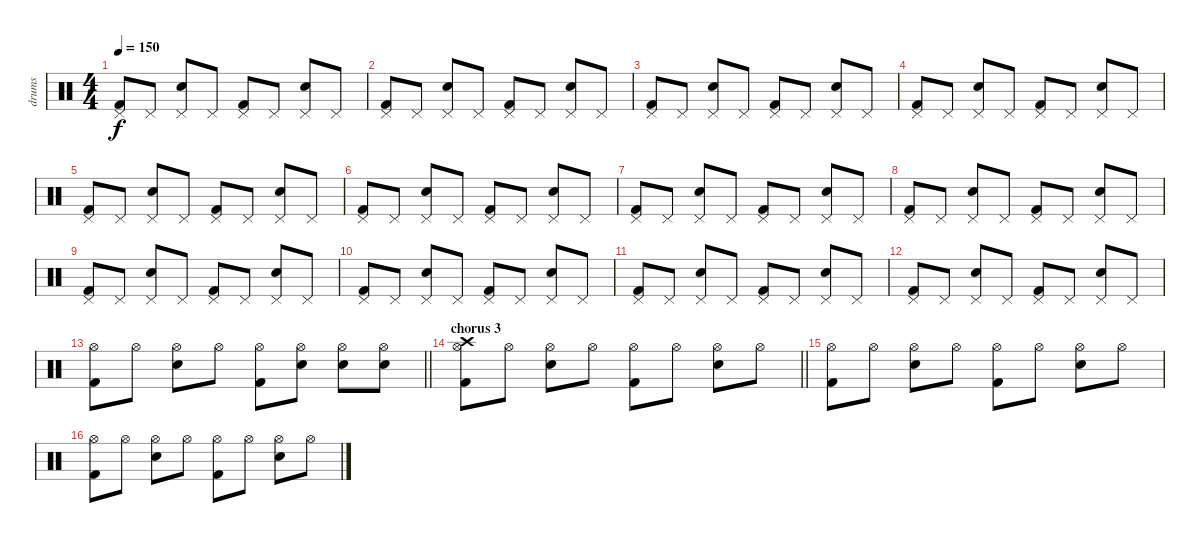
\track ("drums" "drums") {instrument percussion}
\staff {score}
\articulation defaults
\ts (4 4)
\tempo 150
\clef neutral
\ks c
("Kick (hit) 2" "Pedal Hi-Hat (hit)").8{dy f} "Pedal Hi-Hat (hit)".8 ("Electric Snare (hit)" "Pedal Hi-Hat (hit)").8 "Pedal Hi-Hat (hit)".8 ("Kick (hit) 2" "Pedal Hi-Hat (hit)").8 "Pedal Hi-Hat (hit)".8 ("Electric Snare (hit)" "Pedal Hi-Hat (hit)").8 "Pedal Hi-Hat (hit)".8 |
("Kick (hit) 2" "Pedal Hi-Hat (hit)").8 "Pedal Hi-Hat (hit)".8 ("Electric Snare (hit)" "Pedal Hi-Hat (hit)").8 "Pedal Hi-Hat (hit)".8 ("Kick (hit) 2" "Pedal Hi-Hat (hit)").8 "Pedal Hi-Hat (hit)".8 ("Electric Snare (hit)" "Pedal Hi-Hat (hit)").8 "Pedal Hi-Hat (hit)".8 |
("Kick (hit) 2" "Pedal Hi-Hat (hit)").8 "Pedal Hi-Hat (hit)".8 ("Electric Snare (hit)" "Pedal Hi-Hat (hit)").8 "Pedal Hi-Hat (hit)".8 ("Kick (hit) 2" "Pedal Hi-Hat (hit)").8 "Pedal Hi-Hat (hit)".8 ("Electric Snare (hit)" "Pedal Hi-Hat (hit)").8 "Pedal Hi-Hat (hit)".8 |
("Kick (hit) 2" "Pedal Hi-Hat (hit)").8 "Pedal Hi-Hat (hit)".8 ("Electric Snare (hit)" "Pedal Hi-Hat (hit)").8 "Pedal Hi-Hat (hit)".8 ("Kick (hit) 2" "Pedal Hi-Hat (hit)").8 "Pedal Hi-Hat (hit)".8 ("Electric Snare (hit)" "Pedal Hi-Hat (hit)").8 "Pedal Hi-Hat (hit)".8 |
("Kick (hit) 2" "Pedal Hi-Hat (hit)").8 "Pedal Hi-Hat (hit)".8 ("Electric Snare (hit)" "Pedal Hi-Hat (hit)").8 "Pedal Hi-Hat (hit)".8 ("Kick (hit) 2" "Pedal Hi-Hat (hit)").8 "Pedal Hi-Hat (hit)".8 ("Electric Snare (hit)" "Pedal Hi-Hat (hit)").8 "Pedal Hi-Hat (hit)".8 |
("Kick (hit) 2" "Pedal Hi-Hat (hit)").8 "Pedal Hi-Hat (hit)".8 ("Electric Snare (hit)" "Pedal Hi-Hat (hit)").8 "Pedal Hi-Hat (hit)".8 ("Kick (hit) 2" "Pedal Hi-Hat (hit)").8 "Pedal Hi-Hat (hit)".8 ("Electric Snare (hit)" "Pedal Hi-Hat (hit)").8 "Pedal Hi-Hat (hit)".8 |
("Kick (hit) 2" "Pedal Hi-Hat (hit)").8 "Pedal Hi-Hat (hit)".8 ("Electric Snare (hit)" "Pedal Hi-Hat (hit)").8 "Pedal Hi-Hat (hit)".8 ("Kick (hit) 2" "Pedal Hi-Hat (hit)").8 "Pedal Hi-Hat (hit)".8 ("Electric Snare (hit)" "Pedal Hi-Hat (hit)").8 "Pedal Hi-Hat (hit)".8 |
("Kick (hit) 2" "Pedal Hi-Hat (hit)").8 "Pedal Hi-Hat (hit)".8 ("Electric Snare (hit)" "Pedal Hi-Hat (hit)").8 "Pedal Hi-Hat (hit)".8 ("Kick (hit) 2" "Pedal Hi-Hat (hit)").8 "Pedal Hi-Hat (hit)".8 ("Electric Snare (hit)" "Pedal Hi-Hat (hit)").8 "Pedal Hi-Hat (hit)".8 |
("Kick (hit) 2" "Pedal Hi-Hat (hit)").8 "Pedal Hi-Hat (hit)".8 ("Electric Snare (hit)" "Pedal Hi-Hat (hit)").8 "Pedal Hi-Hat (hit)".8 ("Kick (hit) 2" "Pedal Hi-Hat (hit)").8 "Pedal Hi-Hat (hit)".8 ("Electric Snare (hit)" "Pedal Hi-Hat (hit)").8 "Pedal Hi-Hat (hit)".8 |
("Kick (hit) 2" "Pedal Hi-Hat (hit)").8 "Pedal Hi-Hat (hit)".8 ("Electric Snare (hit)" "Pedal Hi-Hat (hit)").8 "Pedal Hi-Hat (hit)".8 ("Kick (hit) 2" "Pedal Hi-Hat (hit)").8 "Pedal Hi-Hat (hit)".8 ("Electric Snare (hit)" "Pedal Hi-Hat (hit)").8 "Pedal Hi-Hat (hit)".8 |
("Kick (hit) 2" "Pedal Hi-Hat (hit)").8 "Pedal Hi-Hat (hit)".8 ("Electric Snare (hit)" "Pedal Hi-Hat (hit)").8 "Pedal Hi-Hat (hit)".8 ("Kick (hit) 2" "Pedal Hi-Hat (hit)").8 "Pedal Hi-Hat (hit)".8 ("Electric Snare (hit)" "Pedal Hi-Hat (hit)").8 "Pedal Hi-Hat (hit)".8 |
("Kick (hit) 2" "Pedal Hi-Hat (hit)").8 "Pedal Hi-Hat (hit)".8 ("Electric Snare (hit)" "Pedal Hi-Hat (hit)").8 "Pedal Hi-Hat (hit)".8 ("Kick (hit) 2" "Pedal Hi-Hat (hit)").8 "Pedal Hi-Hat (hit)".8 ("Electric Snare (hit)" "Pedal Hi-Hat (hit)").8 "Pedal Hi-Hat (hit)".8 |
\barLineRight lightlight
("Kick (hit) 2" "Hi-Hat (open)").8 "Hi-Hat (open)".8 ("Electric Snare (hit)" "Hi-Hat (open)").8 "Hi-Hat (open)".8 ("Kick (hit) 2" "Hi-Hat (open)").8 ("Electric Snare (hit)" "Hi-Hat (open)").8{volume 16} ("Electric Snare (hit)" "Hi-Hat (open)").8 ("Electric Snare (hit)" "Hi-Hat (open)").8 |
\section ("" "chorus 3")
\barLineRight lightlight
("Kick (hit) 2" "Hi-Hat (open)" "Crash high (hit)").8 "Hi-Hat (open)".8 ("Electric Snare (hit)" "Hi-Hat (open)").8 "Hi-Hat (open)".8 ("Kick (hit) 2" "Hi-Hat (open)").8 "Hi-Hat (open)".8 ("Electric Snare (hit)" "Hi-Hat (open)").8 "Hi-Hat (open)".8 |
("Kick (hit) 2" "Hi-Hat (open)").8 "Hi-Hat (open)".8 ("Electric Snare (hit)" "Hi-Hat (open)").8 "Hi-Hat (open)".8 ("Kick (hit) 2" "Hi-Hat (open)").8 "Hi-Hat (open)".8 ("Electric Snare (hit)" "Hi-Hat (open)").8 "Hi-Hat (open)".8 |
("Kick (hit) 2" "Hi-Hat (open)").8 "Hi-Hat (open)".8 ("Electric Snare (hit)" "Hi-Hat (open)").8 "Hi-Hat (open)".8 ("Kick (hit) 2" "Hi-Hat (open)").8 "Hi-Hat (open)".8 ("Electric Snare (hit)" "Hi-Hat (open)").8 "Hi-Hat (open)".8
